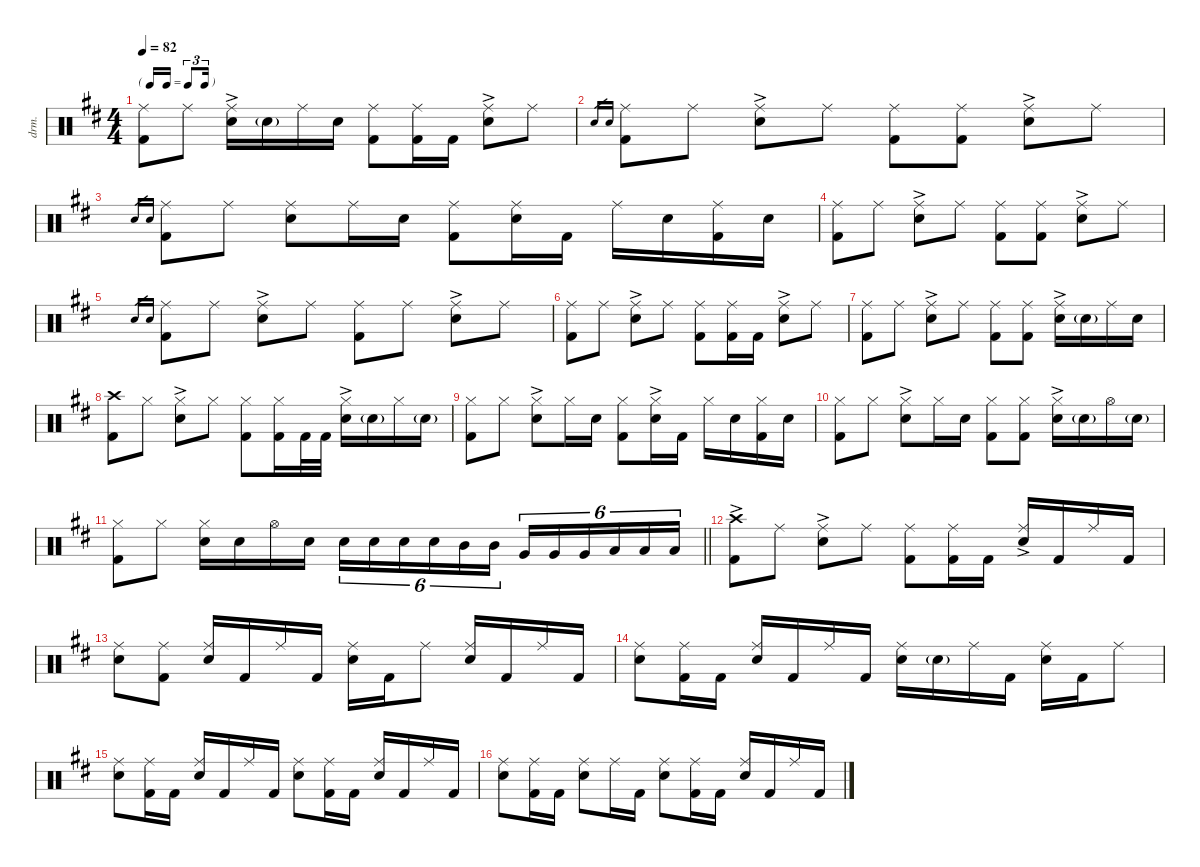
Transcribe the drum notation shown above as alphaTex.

\defaultSystemsLayout 4
\hideDynamics
\bracketExtendMode nobrackets
\otherSystemsTrackNameOrientation horizontal
\track ("Buddy" "drm.") {instrument percussion}
\staff {score}
\articulation defaults
\ts (4 4)
\tf triplet16th
\tempo 82
\clef neutral
\ks d
("Ride (middle)"{acc forcenatural} "Kick (hit) 2"{acc forcenatural}).8{dy f beam Down} "Ride (middle)"{acc forcenatural}.8{beam Down} ("Ride (middle)"{ac acc forcenatural} "Snare (hit) 2"{ac acc forcenatural}).16{beam Down} "Snare (hit) 2"{g acc forcenatural}.16{dy mf beam Down} "Ride (middle)"{acc forcenatural}.16{dy f beam Down} "Snare (hit) 2"{acc forcenatural}.16{beam Down} ("Ride (middle)"{acc forcenatural} "Kick (hit) 2"{acc forcenatural}).8{beam Down} ("Ride (middle)"{acc forcenatural} "Kick (hit) 2"{acc forcenatural}).16{beam Down} "Kick (hit) 2"{acc forcenatural}.16{beam Down} ("Ride (middle)"{ac acc forcenatural} "Snare (hit) 2"{ac acc forcenatural}).8{beam Down} "Ride (middle)"{acc forcenatural}.8{beam Down} |
"Snare (hit) 2"{acc forcenatural}.16{gr dy ppp beam Up} "Snare (hit) 2"{acc forcenatural}.16{gr beam Up} ("Ride (middle)"{acc forcenatural} "Kick (hit) 2"{acc forcenatural}).8{dy f beam Down} "Ride (middle)"{acc forcenatural}.8{beam Down} ("Ride (middle)"{ac acc forcenatural} "Snare (hit) 2"{acc forcenatural}).8{beam Down} "Ride (middle)"{acc forcenatural}.8{beam Down} ("Ride (middle)"{acc forcenatural} "Kick (hit) 2"{acc forcenatural}).8{beam Down} ("Ride (middle)"{acc forcenatural} "Kick (hit) 2"{acc forcenatural}).8{beam Down} ("Ride (middle)"{ac acc forcenatural} "Snare (hit) 2"{ac acc forcenatural}).8{beam Down} "Ride (middle)"{acc forcenatural}.8{beam Down} |
"Snare (hit) 2"{acc forcenatural}.16{gr dy ppp beam Up} "Snare (hit) 2"{acc forcenatural}.16{gr beam Up} ("Ride (middle)"{acc forcenatural} "Kick (hit) 2"{acc forcenatural}).8{dy f beam Down} "Ride (middle)"{acc forcenatural}.8{beam Down} ("Ride (middle)"{acc forcenatural} "Snare (hit) 2"{acc forcenatural}).8{beam Down} "Ride (middle)"{acc forcenatural}.16{beam Down} "Snare (hit) 2"{acc forcenatural}.16{beam Down} ("Ride (middle)"{acc forcenatural} "Kick (hit) 2"{acc forcenatural}).8{beam Down} ("Ride (middle)"{acc forcenatural} "Snare (hit) 2"{acc forcenatural}).16{beam Down} "Kick (hit) 2"{acc forcenatural}.16{beam Down} "Ride (middle)"{acc forcenatural}.16{beam Down} "Snare (hit) 2"{acc forcenatural}.16{beam Down} ("Ride (middle)"{acc forcenatural} "Kick (hit) 2"{acc forcenatural}).16{beam Down} "Snare (hit) 2"{acc forcenatural}.16{beam Down} |
("Ride (middle)"{acc forcenatural} "Kick (hit) 2"{acc forcenatural}).8{beam Down} "Ride (middle)"{acc forcenatural}.8{beam Down} ("Ride (middle)"{ac acc forcenatural} "Snare (hit) 2"{acc forcenatural}).8{beam Down} "Ride (middle)"{acc forcenatural}.8{beam Down} ("Ride (middle)"{acc forcenatural} "Kick (hit) 2"{acc forcenatural}).8{beam Down} ("Ride (middle)"{acc forcenatural} "Kick (hit) 2"{acc forcenatural}).8{beam Down} ("Ride (middle)"{ac acc forcenatural} "Snare (hit) 2"{ac acc forcenatural}).8{beam Down} "Ride (middle)"{acc forcenatural}.8{beam Down} |
"Snare (hit) 2"{acc forcenatural}.16{gr dy ppp beam Up} "Snare (hit) 2"{acc forcenatural}.16{gr beam Up} ("Ride (middle)"{acc forcenatural} "Kick (hit) 2"{acc forcenatural}).8{dy f beam Down} "Ride (middle)"{acc forcenatural}.8{beam Down} ("Ride (middle)"{ac acc forcenatural} "Snare (hit) 2"{acc forcenatural}).8{beam Down} "Ride (middle)"{acc forcenatural}.8{beam Down} ("Ride (middle)"{acc forcenatural} "Kick (hit) 2"{acc forcenatural}).8{beam Down} "Ride (middle)"{acc forcenatural}.8{beam Down} ("Ride (middle)"{ac acc forcenatural} "Snare (hit) 2"{ac acc forcenatural}).8{beam Down} "Ride (middle)"{acc forcenatural}.8{beam Down} |
("Ride (middle)"{acc forcenatural} "Kick (hit) 2"{acc forcenatural}).8{beam Down} "Ride (middle)"{acc forcenatural}.8{beam Down} ("Ride (middle)"{ac acc forcenatural} "Snare (hit) 2"{acc forcenatural}).8{beam Down} "Ride (middle)"{acc forcenatural}.8{beam Down} ("Ride (middle)"{acc forcenatural} "Kick (hit) 2"{acc forcenatural}).8{beam Down} ("Ride (middle)"{acc forcenatural} "Kick (hit) 2"{acc forcenatural}).16{beam Down} "Kick (hit) 2"{acc forcenatural}.16{beam Down} ("Ride (middle)"{ac acc forcenatural} "Snare (hit) 2"{ac acc forcenatural}).8{beam Down} "Ride (middle)"{acc forcenatural}.8{beam Down} |
("Ride (middle)"{acc forcenatural} "Kick (hit) 2"{acc forcenatural}).8{beam Down} "Ride (middle)"{acc forcenatural}.8{beam Down} ("Ride (middle)"{ac acc forcenatural} "Snare (hit) 2"{acc forcenatural}).8{beam Down} "Ride (middle)"{acc forcenatural}.8{beam Down} ("Ride (middle)"{acc forcenatural} "Kick (hit) 2"{acc forcenatural}).8{beam Down} ("Ride (middle)"{acc forcenatural} "Kick (hit) 2"{acc forcenatural}).8{beam Down} ("Ride (middle)"{ac acc forcenatural} "Snare (hit) 2"{ac acc forcenatural}).16{beam Down} "Snare (hit) 2"{g acc forcenatural}.16{dy mf beam Down} "Ride (middle)"{acc forcenatural}.16{dy f beam Down} "Snare (hit) 2"{acc forcenatural}.16{beam Down} |
("Crash high (hit)"{acc forcenatural} "Kick (hit) 2"{acc forcenatural}).8{beam Down} "Hi-Hat (closed)"{acc forcenatural}.8{beam Down} ("Hi-Hat (closed)"{ac acc forcenatural} "Snare (hit) 2"{ac acc forcenatural}).8{beam Down} "Hi-Hat (closed)"{acc forcenatural}.8{beam Down} ("Hi-Hat (closed)"{acc forcenatural} "Kick (hit) 2"{acc forcenatural}).8{beam Down} ("Hi-Hat (closed)"{acc forcenatural} "Kick (hit) 2"{acc forcenatural}).16{beam Down} "Kick (hit) 2"{acc forcenatural}.32{beam Down} "Kick (hit) 2"{acc forcenatural}.32{beam Down} ("Hi-Hat (closed)"{ac acc forcenatural} "Snare (hit) 2"{ac acc forcenatural}).16{beam Down} "Snare (hit) 2"{g acc forcenatural}.16{dy mf beam Down} "Hi-Hat (closed)"{acc forcenatural}.16{dy f beam Down} "Snare (hit) 2"{g acc forcenatural}.16{dy mf beam Down} |
("Hi-Hat (closed)"{acc forcenatural} "Kick (hit) 2"{acc forcenatural}).8{dy f beam Down} "Hi-Hat (closed)"{acc forcenatural}.8{beam Down} ("Hi-Hat (closed)"{ac acc forcenatural} "Snare (hit) 2"{ac acc forcenatural}).8{beam Down} "Hi-Hat (closed)"{acc forcenatural}.16{beam Down} "Snare (hit) 2"{acc forcenatural}.16{beam Down} ("Hi-Hat (closed)"{acc forcenatural} "Kick (hit) 2"{acc forcenatural}).8{beam Down} ("Hi-Hat (closed)"{ac acc forcenatural} "Snare (hit) 2"{ac acc forcenatural}).16{beam Down} "Kick (hit) 2"{acc forcenatural}.16{beam Down} "Hi-Hat (closed)"{acc forcenatural}.16{beam Down} "Snare (hit) 2"{acc forcenatural}.16{beam Down} ("Hi-Hat (closed)"{acc forcenatural} "Kick (hit) 2"{acc forcenatural}).16{beam Down} "Snare (hit) 2"{acc forcenatural}.16{beam Down} |
("Hi-Hat (closed)"{acc forcenatural} "Kick (hit) 2"{acc forcenatural}).8{beam Down} "Hi-Hat (closed)"{acc forcenatural}.8{beam Down} ("Hi-Hat (closed)"{acc forcenatural} "Snare (hit) 2"{ac acc forcenatural}).8{beam Down} "Hi-Hat (closed)"{acc forcenatural}.16{beam Down} "Snare (hit) 2"{acc forcenatural}.16{beam Down} ("Hi-Hat (closed)"{acc forcenatural} "Kick (hit) 2"{acc forcenatural}).8{beam Down} ("Hi-Hat (closed)"{acc forcenatural} "Kick (hit) 2"{acc forcenatural}).8{beam Down} ("Hi-Hat (closed)"{ac acc forcenatural} "Snare (hit) 2"{ac acc forcenatural}).16{beam Down} "Snare (hit) 2"{g acc forcenatural}.16{dy mf beam Down} "Hi-Hat (open)"{acc forcenatural}.16{dy f beam Down} "Snare (hit) 2"{g acc forcenatural}.16{dy mf beam Down} |
\barLineRight lightlight
("Hi-Hat (closed)"{acc forcenatural} "Kick (hit) 2"{acc forcenatural}).8{dy f beam Down} "Hi-Hat (closed)"{acc forcenatural}.8{beam Down} ("Hi-Hat (closed)"{acc forcenatural} "Snare (hit) 2"{acc forcenatural}).16{beam Down} "Snare (hit) 2"{acc forcenatural}.16{beam Down} "Hi-Hat (open)"{acc forcenatural}.16{beam Down} "Snare (hit) 2"{acc forcenatural}.16{beam Down} "Snare (hit) 2"{acc forcenatural}.16{tu (6 4) beam Down} "Snare (hit) 2"{acc forcenatural}.16{tu (6 4) beam Down} "Snare (hit) 2"{acc forcenatural}.16{tu (6 4) beam Down} "Snare (hit) 2"{acc forcenatural}.16{tu (6 4) beam Down} "Mid Tom (hit)"{acc forcenatural}.16{tu (6 4) beam Down} "Mid Tom (hit)"{acc forcenatural}.16{tu (6 4) beam Down} "Very Low Tom (hit)"{acc forcenatural}.16{tu (6 4) beam Up} "Very Low Tom (hit)"{acc forcenatural}.16{tu (6 4) beam Up} "Very Low Tom (hit)"{acc forcenatural}.16{tu (6 4) beam Up} "Low Floor Tom (hit)"{acc forcenatural}.16{tu (6 4) beam Up} "Low Floor Tom (hit)"{acc forcenatural}.16{tu (6 4) beam Up} "Low Floor Tom (hit)"{acc forcenatural}.16{tu (6 4) beam Up} |
("Crash high (hit)"{ac acc forcenatural} "Kick (hit) 2"{ac acc forcenatural}).8{beam Down} "Ride (middle)"{acc forcenatural}.8{beam Down} ("Ride (middle)"{ac acc forcenatural} "Snare (hit) 2"{acc forcenatural}).8{beam Down} "Ride (middle)"{acc forcenatural}.8{beam Down} ("Ride (middle)"{acc forcenatural} "Kick (hit) 2"{acc forcenatural}).8{beam Down} ("Ride (middle)"{acc forcenatural} "Kick (hit) 2"{acc forcenatural}).16{beam Down} "Kick (hit) 2"{acc forcenatural}.16{beam Down} ("Ride (middle)"{ac acc forcenatural} "Snare (hit) 2"{ac acc forcenatural}).16{beam Up} "Kick (hit) 2"{acc forcenatural}.16{beam Up} "Ride (middle)"{acc forcenatural}.16{beam Up} "Kick (hit) 2"{acc forcenatural}.16{beam Up} |
("Ride (middle)"{acc forcenatural} "Snare (hit) 2"{acc forcenatural}).8{beam Down} ("Ride (middle)"{acc forcenatural} "Kick (hit) 2"{acc forcenatural}).8{beam Down} ("Ride (middle)"{acc forcenatural} "Snare (hit) 2"{acc forcenatural}).16{beam Up} "Kick (hit) 2"{acc forcenatural}.16{beam Up} "Ride (middle)"{acc forcenatural}.16{beam Up} "Kick (hit) 2"{acc forcenatural}.16{beam Up} ("Ride (middle)"{acc forcenatural} "Snare (hit) 2"{acc forcenatural}).16{beam Down} "Kick (hit) 2"{acc forcenatural}.16{beam Down} "Ride (middle)"{acc forcenatural}.8{beam Down} ("Ride (middle)"{acc forcenatural} "Snare (hit) 2"{acc forcenatural}).16{beam Up} "Kick (hit) 2"{acc forcenatural}.16{beam Up} "Ride (middle)"{acc forcenatural}.16{beam Up} "Kick (hit) 2"{acc forcenatural}.16{beam Up} |
("Ride (middle)"{acc forcenatural} "Snare (hit) 2"{acc forcenatural}).8{beam Down} ("Ride (middle)"{acc forcenatural} "Kick (hit) 2"{acc forcenatural}).16{beam Down} "Kick (hit) 2"{acc forcenatural}.16{beam Down} ("Ride (middle)"{acc forcenatural} "Snare (hit) 2"{acc forcenatural}).16{beam Up} "Kick (hit) 2"{acc forcenatural}.16{beam Up} "Ride (middle)"{acc forcenatural}.16{beam Up} "Kick (hit) 2"{acc forcenatural}.16{beam Up} ("Ride (middle)"{acc forcenatural} "Snare (hit) 2"{acc forcenatural}).16{beam Down} "Snare (hit) 2"{g acc forcenatural}.16{dy mf beam Down} "Ride (middle)"{acc forcenatural}.16{dy f beam Down} "Kick (hit) 2"{acc forcenatural}.16{beam Down} ("Ride (middle)"{acc forcenatural} "Snare (hit) 2"{acc forcenatural}).16{beam Down} "Kick (hit) 2"{acc forcenatural}.16{beam Down} "Ride (middle)"{acc forcenatural}.8{beam Down} |
("Ride (middle)"{acc forcenatural} "Snare (hit) 2"{acc forcenatural}).8{beam Down} ("Ride (middle)"{acc forcenatural} "Kick (hit) 2"{acc forcenatural}).16{beam Down} "Kick (hit) 2"{acc forcenatural}.16{beam Down} ("Ride (middle)"{acc forcenatural} "Snare (hit) 2"{acc forcenatural}).16{beam Up} "Kick (hit) 2"{acc forcenatural}.16{beam Up} "Ride (middle)"{acc forcenatural}.16{beam Up} "Kick (hit) 2"{acc forcenatural}.16{beam Up} ("Ride (middle)"{acc forcenatural} "Snare (hit) 2"{acc forcenatural}).8{beam Down} ("Ride (middle)"{acc forcenatural} "Kick (hit) 2"{acc forcenatural}).16{beam Down} "Kick (hit) 2"{acc forcenatural}.16{beam Down} ("Ride (middle)"{acc forcenatural} "Snare (hit) 2"{acc forcenatural}).16{beam Up} "Kick (hit) 2"{acc forcenatural}.16{beam Up} "Ride (middle)"{acc forcenatural}.16{beam Up} "Kick (hit) 2"{acc forcenatural}.16{beam Up} |
("Ride (middle)"{acc forcenatural} "Snare (hit) 2"{acc forcenatural}).8{beam Down} ("Ride (middle)"{acc forcenatural} "Kick (hit) 2"{acc forcenatural}).16{beam Down} "Kick (hit) 2"{acc forcenatural}.16{beam Down} ("Ride (middle)"{acc forcenatural} "Snare (hit) 2"{acc forcenatural}).8{beam Down} "Ride (middle)"{acc forcenatural}.16{beam Down} "Kick (hit) 2"{acc forcenatural}.16{beam Down} ("Ride (middle)"{acc forcenatural} "Snare (hit) 2"{acc forcenatural}).8{beam Down} ("Ride (middle)"{acc forcenatural} "Kick (hit) 2"{acc forcenatural}).16{beam Down} "Kick (hit) 2"{acc forcenatural}.16{beam Down} ("Ride (middle)"{acc forcenatural} "Snare (hit) 2"{acc forcenatural}).16{beam Up} "Kick (hit) 2"{acc forcenatural}.16{beam Up} "Ride (middle)"{acc forcenatural}.16{beam Up} "Kick (hit) 2"{acc forcenatural}.16{beam Up}
